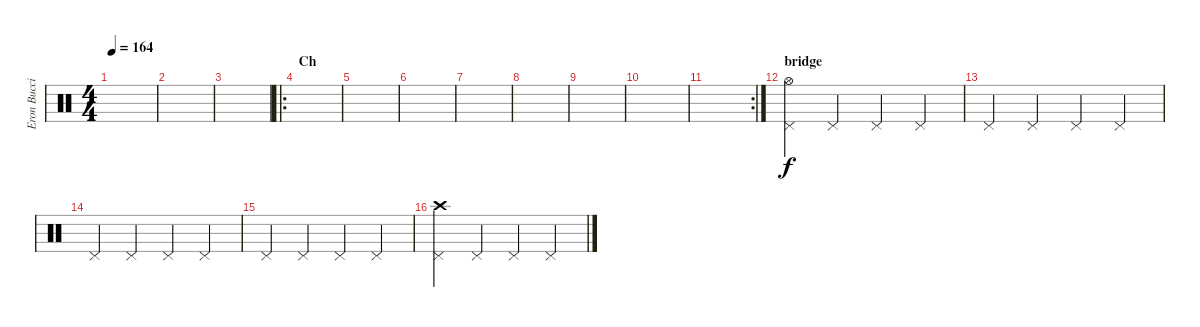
\track ("Eron Bucciarelli (Drums)" "Eron Bucci") {instrument percussion}
\staff {score}
\articulation defaults
\ts (4 4)
\tempo 164
\clef neutral
\ks c
|
|
|
\ro
\section ("" "Ch")
|
|
|
|
|
|
|
\rc 2
|
\section ("" "bridge")
("Pedal Hi-Hat (hit)" "Hi-Hat (open)").4 "Pedal Hi-Hat (hit)".4 "Pedal Hi-Hat (hit)".4 "Pedal Hi-Hat (hit)".4 |
"Pedal Hi-Hat (hit)".4 "Pedal Hi-Hat (hit)".4 "Pedal Hi-Hat (hit)".4 "Pedal Hi-Hat (hit)".4 |
"Pedal Hi-Hat (hit)".4 "Pedal Hi-Hat (hit)".4 "Pedal Hi-Hat (hit)".4 "Pedal Hi-Hat (hit)".4 |
"Pedal Hi-Hat (hit)".4 "Pedal Hi-Hat (hit)".4 "Pedal Hi-Hat (hit)".4 "Pedal Hi-Hat (hit)".4 |
("Pedal Hi-Hat (hit)" "Crash high (hit)").4 "Pedal Hi-Hat (hit)".4 "Pedal Hi-Hat (hit)".4 "Pedal Hi-Hat (hit)".4
